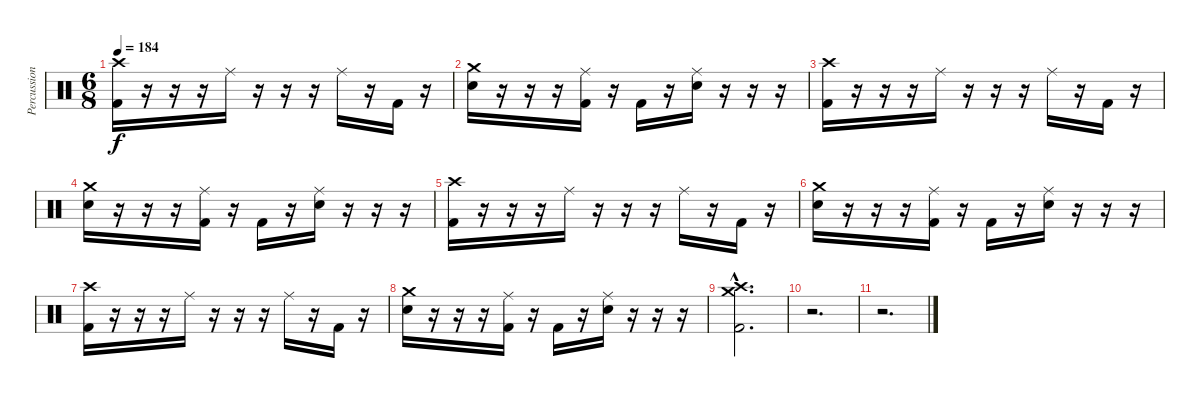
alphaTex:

\track ("Percussion" "Percussion") {instrument percussion}
\staff {score}
\articulation defaults
\ts (6 8)
\tempo 184
\clef neutral
\ks c
("Crash high (hit)" "Kick (hit) 2").16{dy f} r.16 r.16 r.16 "Ride (middle)".16 r.16 r.16 r.16 "Ride (middle)".16 r.16 "Kick (hit) 2".16 r.16 |
("Crash medium (hit)" "Electric Snare (hit)").16 r.16 r.16 r.16 ("Ride (middle)" "Kick (hit) 2").16 r.16 "Kick (hit) 2".16 r.16 ("Ride (middle)" "Electric Snare (hit)").16 r.16 r.16 r.16 |
("Crash high (hit)" "Kick (hit) 2").16 r.16 r.16 r.16 "Ride (middle)".16 r.16 r.16 r.16 "Ride (middle)".16 r.16 "Kick (hit) 2".16 r.16 |
("Crash medium (hit)" "Electric Snare (hit)").16 r.16 r.16 r.16 ("Ride (middle)" "Kick (hit) 2").16 r.16 "Kick (hit) 2".16 r.16 ("Ride (middle)" "Electric Snare (hit)").16 r.16 r.16 r.16 |
("Crash high (hit)" "Kick (hit) 2").16 r.16 r.16 r.16 "Ride (middle)".16 r.16 r.16 r.16 "Ride (middle)".16 r.16 "Kick (hit) 2".16 r.16 |
("Crash medium (hit)" "Electric Snare (hit)").16 r.16 r.16 r.16 ("Ride (middle)" "Kick (hit) 2").16 r.16 "Kick (hit) 2".16 r.16 ("Ride (middle)" "Electric Snare (hit)").16 r.16 r.16 r.16 |
("Crash high (hit)" "Kick (hit) 2").16 r.16 r.16 r.16 "Ride (middle)".16 r.16 r.16 r.16 "Ride (middle)".16 r.16 "Kick (hit) 2".16 r.16 |
("Crash medium (hit)" "Electric Snare (hit)").16 r.16 r.16 r.16 ("Ride (middle)" "Kick (hit) 2").16 r.16 "Kick (hit) 2".16 r.16 ("Ride (middle)" "Electric Snare (hit)").16 r.16 r.16 r.16 |
("Crash medium (hit)"{hac} "Crash high (hit)"{hac} "Kick (hit) 2"{hac}).2{d} |
r.2{d} |
r.2{d}
